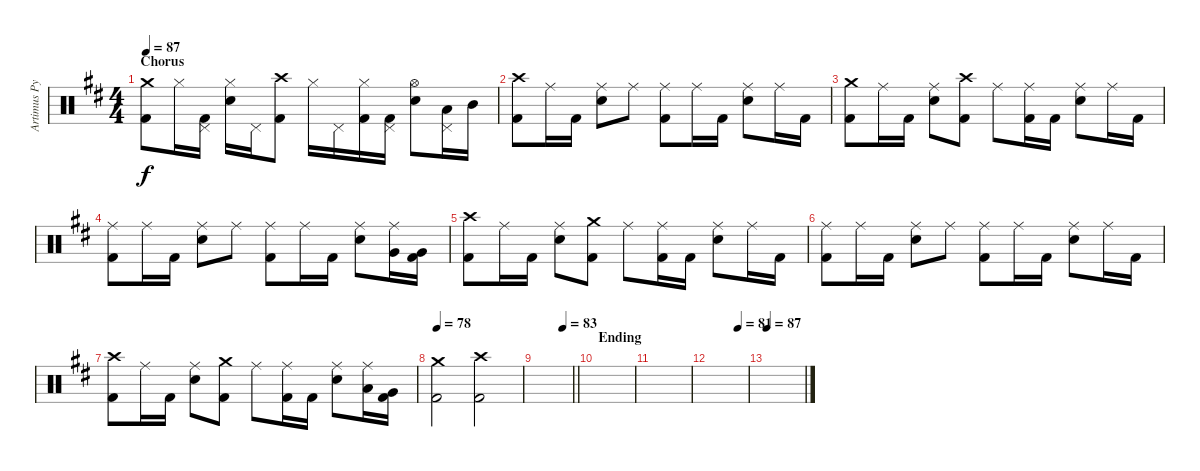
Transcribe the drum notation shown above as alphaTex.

\track ("Artimus Pyle - Drums" "Artimus Py") {instrument percussion}
\staff {score}
\articulation defaults
\ts (4 4)
\section ("" "Chorus")
\tempo 87
\clef neutral
\ks d
("Crash medium (hit)" "Kick (hit) 2").8{dy f} "Hi-Hat (closed)".16 ("Pedal Hi-Hat (hit)" "Kick (hit) 2").16 ("Snare (hit) 2" "Hi-Hat (closed)").16 "Pedal Hi-Hat (hit)".16 ("Crash high (hit)" "Kick (hit) 2").8 "Hi-Hat (closed)".16 "Pedal Hi-Hat (hit)".16 ("Hi-Hat (closed)" "Kick (hit) 2").16 ("Pedal Hi-Hat (hit)" "Kick (hit) 2").16 ("Snare (hit) 2" "Hi-Hat (open)").8 ("Pedal Hi-Hat (hit)" "Low Floor Tom (hit)").16 "Mid Tom (hit)".16 |
("Crash high (hit)" "Kick (hit) 2").8 "Ride (middle)".16 "Kick (hit) 2".16 ("Ride (middle)" "Snare (hit) 2").8 "Ride (middle)".8 ("Ride (middle)" "Kick (hit) 2").8 "Ride (middle)".16 "Kick (hit) 2".16 ("Ride (middle)" "Snare (hit) 2").8 "Ride (middle)".16 "Kick (hit) 2".16 |
("Crash medium (hit)" "Kick (hit) 2").8 "Ride (middle)".16 "Kick (hit) 2".16 ("Ride (middle)" "Snare (hit) 2").8 ("Crash high (hit)" "Kick (hit) 2").8 "Ride (middle)".8 ("Ride (middle)" "Kick (hit) 2").16 "Kick (hit) 2".16 ("Ride (middle)" "Snare (hit) 2").8 "Ride (middle)".16 "Kick (hit) 2".16 |
("Ride (middle)" "Kick (hit) 2").8 "Ride (middle)".16 "Kick (hit) 2".16 ("Ride (middle)" "Snare (hit) 2").8 "Ride (middle)".8 ("Ride (middle)" "Kick (hit) 2").8 "Ride (middle)".16 "Kick (hit) 2".16 ("Ride (middle)" "Snare (hit) 2").8 ("Ride (middle)" "Very Low Tom (hit)").16 ("Very Low Tom (hit)" "Kick (hit) 2").16 |
("Crash high (hit)" "Kick (hit) 2").8 "Ride (middle)".16 "Kick (hit) 2".16 ("Ride (middle)" "Snare (hit) 2").8 ("Crash medium (hit)" "Kick (hit) 2").8 "Ride (middle)".8 ("Ride (middle)" "Kick (hit) 2").16 "Kick (hit) 2".16 ("Ride (middle)" "Snare (hit) 2").8 "Ride (middle)".16 "Kick (hit) 2".16 |
("Ride (middle)" "Kick (hit) 2").8 "Ride (middle)".16 "Kick (hit) 2".16 ("Ride (middle)" "Snare (hit) 2").8 "Ride (middle)".8 ("Ride (middle)" "Kick (hit) 2").8 "Ride (middle)".16 "Kick (hit) 2".16 ("Ride (middle)" "Snare (hit) 2").8 "Ride (middle)".16 "Kick (hit) 2".16 |
("Crash high (hit)" "Kick (hit) 2").8 "Ride (middle)".16 "Kick (hit) 2".16 ("Ride (middle)" "Snare (hit) 2").8 ("Crash medium (hit)" "Kick (hit) 2").8 "Ride (middle)".8 ("Ride (middle)" "Kick (hit) 2").16 "Kick (hit) 2".16 ("Ride (middle)" "Snare (hit) 2").8 ("Ride (middle)" "Low Tom (hit)").16 ("Very Low Tom (hit)" "Kick (hit) 2").16 |
\tempo 78
("Crash medium (hit)" "Kick (hit) 2").2 ("Crash high (hit)" "Kick (hit) 2").2 |
\tempo (83 0.75)
\barLineRight lightlight
|
\section ("" "Ending")
|
|
\tempo (81 0.75)
|
\tempo 87
